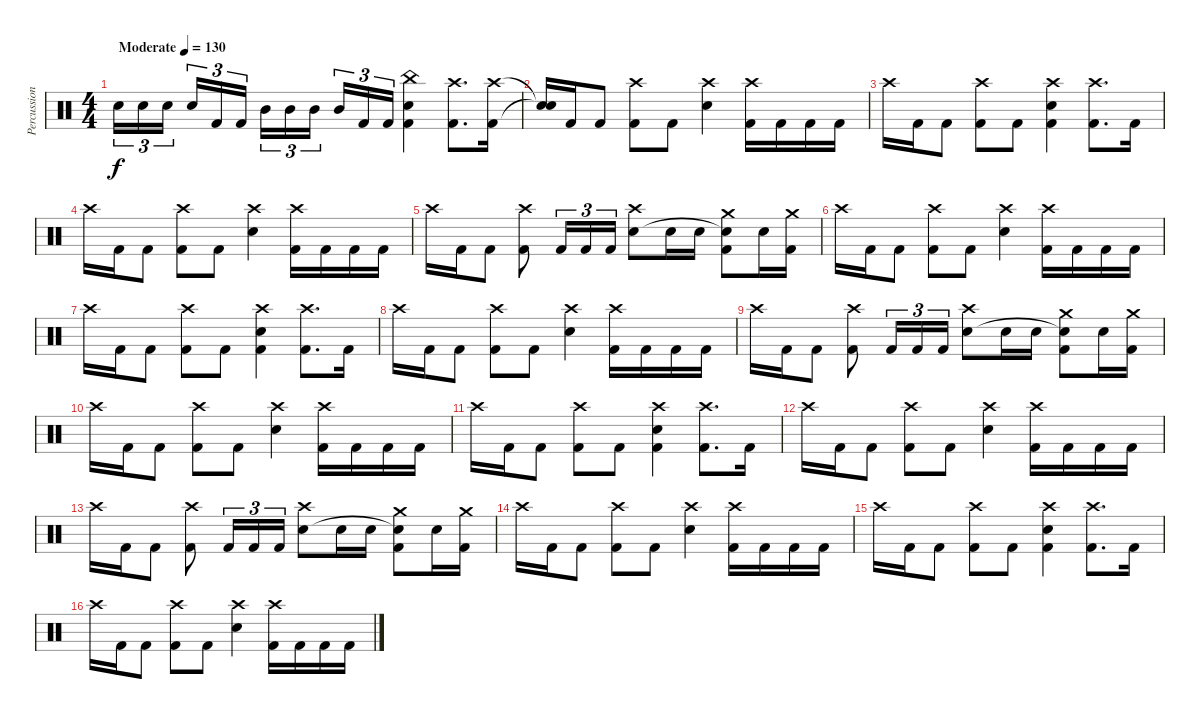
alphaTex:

\track ("Percussion" "Percussion") {instrument percussion}
\staff {score}
\articulation defaults
\ts (4 4)
\tempo (130 "Moderate")
\clef neutral
\ks c "Electric Snare (hit)".16{tu (3 2) dy f} "Electric Snare (hit)".16{tu (3 2)} "Electric Snare (hit)".16{tu (3 2) beam splitsecondary} "Electric Snare (hit)".16{tu (3 2)} "Kick (hit) 2".16{tu (3 2)} "Kick (hit) 2".16{tu (3 2)} "Mid Tom (hit)".16{tu (3 2)} "Mid Tom (hit)".16{tu (3 2)} "Mid Tom (hit)".16{tu (3 2) beam splitsecondary} "Mid Tom (hit)".16{tu (3 2)} "Kick (hit) 2".16{tu (3 2)} "Kick (hit) 2".16{tu (3 2)}
("China (hit)" "Electric Snare (hit)" "Kick (hit) 2").4 ("Crash high (hit)" "Kick (hit) 2").8{d} ("Crash high (hit)" "Kick (hit) 2").16 |
("Snare (hit)"{t} "Snare (hit)"{t}).16 "Kick (hit) 2".16 "Kick (hit) 2".8 ("Crash high (hit)" "Kick (hit) 2").8 "Kick (hit) 2".8 ("Crash high (hit)" "Electric Snare (hit)").4 ("Crash high (hit)" "Kick (hit) 2").16 "Kick (hit) 2".16 "Kick (hit) 2".16 "Kick (hit) 2".16 |
"Crash high (hit)".16 "Kick (hit) 2".16 "Kick (hit) 2".8 ("Crash high (hit)" "Kick (hit) 2").8 "Kick (hit) 2".8 ("Crash high (hit)" "Electric Snare (hit)" "Kick (hit) 2").4 ("Crash high (hit)" "Kick (hit) 2").8{d} "Kick (hit) 2".16 |
"Crash high (hit)".16 "Kick (hit) 2".16 "Kick (hit) 2".8 ("Crash high (hit)" "Kick (hit) 2").8 "Kick (hit) 2".8 ("Crash high (hit)" "Electric Snare (hit)").4 ("Crash high (hit)" "Kick (hit) 2").16 "Kick (hit) 2".16 "Kick (hit) 2".16 "Kick (hit) 2".16 |
"Crash high (hit)".16 "Kick (hit) 2".16 "Kick (hit) 2".8 ("Crash high (hit)" "Kick (hit) 2").8 "Kick (hit) 2".16{tu (3 2)} "Kick (hit) 2".16{tu (3 2)} "Kick (hit) 2".16{tu (3 2)} ("Crash high (hit)" "Electric Snare (hit)").8 "Electric Snare (hit)".16 "Electric Snare (hit)".16 ("Crash medium (hit)" "Snare (hit)"{t} "Kick (hit) 2").8 "Electric Snare (hit)".16 ("Crash medium (hit)" "Kick (hit) 2").16 |
"Crash high (hit)".16 "Kick (hit) 2".16 "Kick (hit) 2".8 ("Crash high (hit)" "Kick (hit) 2").8 "Kick (hit) 2".8 ("Crash high (hit)" "Electric Snare (hit)").4 ("Crash high (hit)" "Kick (hit) 2").16 "Kick (hit) 2".16 "Kick (hit) 2".16 "Kick (hit) 2".16 |
"Crash high (hit)".16 "Kick (hit) 2".16 "Kick (hit) 2".8 ("Crash high (hit)" "Kick (hit) 2").8 "Kick (hit) 2".8 ("Crash high (hit)" "Electric Snare (hit)" "Kick (hit) 2").4 ("Crash high (hit)" "Kick (hit) 2").8{d} "Kick (hit) 2".16 |
"Crash high (hit)".16 "Kick (hit) 2".16 "Kick (hit) 2".8 ("Crash high (hit)" "Kick (hit) 2").8 "Kick (hit) 2".8 ("Crash high (hit)" "Electric Snare (hit)").4 ("Crash high (hit)" "Kick (hit) 2").16 "Kick (hit) 2".16 "Kick (hit) 2".16 "Kick (hit) 2".16 |
"Crash high (hit)".16 "Kick (hit) 2".16 "Kick (hit) 2".8 ("Crash high (hit)" "Kick (hit) 2").8 "Kick (hit) 2".16{tu (3 2)} "Kick (hit) 2".16{tu (3 2)} "Kick (hit) 2".16{tu (3 2)} ("Crash high (hit)" "Electric Snare (hit)").8 "Electric Snare (hit)".16 "Electric Snare (hit)".16 ("Crash medium (hit)" "Snare (hit)"{t} "Kick (hit) 2").8 "Electric Snare (hit)".16 ("Crash medium (hit)" "Kick (hit) 2").16 |
"Crash high (hit)".16 "Kick (hit) 2".16 "Kick (hit) 2".8 ("Crash high (hit)" "Kick (hit) 2").8 "Kick (hit) 2".8 ("Crash high (hit)" "Electric Snare (hit)").4 ("Crash high (hit)" "Kick (hit) 2").16 "Kick (hit) 2".16 "Kick (hit) 2".16 "Kick (hit) 2".16 |
"Crash high (hit)".16 "Kick (hit) 2".16 "Kick (hit) 2".8 ("Crash high (hit)" "Kick (hit) 2").8 "Kick (hit) 2".8 ("Crash high (hit)" "Electric Snare (hit)" "Kick (hit) 2").4 ("Crash high (hit)" "Kick (hit) 2").8{d} "Kick (hit) 2".16 |
"Crash high (hit)".16 "Kick (hit) 2".16 "Kick (hit) 2".8 ("Crash high (hit)" "Kick (hit) 2").8 "Kick (hit) 2".8 ("Crash high (hit)" "Electric Snare (hit)").4 ("Crash high (hit)" "Kick (hit) 2").16 "Kick (hit) 2".16 "Kick (hit) 2".16 "Kick (hit) 2".16 |
"Crash high (hit)".16 "Kick (hit) 2".16 "Kick (hit) 2".8 ("Crash high (hit)" "Kick (hit) 2").8 "Kick (hit) 2".16{tu (3 2)} "Kick (hit) 2".16{tu (3 2)} "Kick (hit) 2".16{tu (3 2)} ("Crash high (hit)" "Electric Snare (hit)").8 "Electric Snare (hit)".16 "Electric Snare (hit)".16 ("Crash medium (hit)" "Snare (hit)"{t} "Kick (hit) 2").8 "Electric Snare (hit)".16 ("Crash medium (hit)" "Kick (hit) 2").16 |
"Crash high (hit)".16 "Kick (hit) 2".16 "Kick (hit) 2".8 ("Crash high (hit)" "Kick (hit) 2").8 "Kick (hit) 2".8 ("Crash high (hit)" "Electric Snare (hit)").4 ("Crash high (hit)" "Kick (hit) 2").16 "Kick (hit) 2".16 "Kick (hit) 2".16 "Kick (hit) 2".16 |
"Crash high (hit)".16 "Kick (hit) 2".16 "Kick (hit) 2".8 ("Crash high (hit)" "Kick (hit) 2").8 "Kick (hit) 2".8 ("Crash high (hit)" "Electric Snare (hit)" "Kick (hit) 2").4 ("Crash high (hit)" "Kick (hit) 2").8{d} "Kick (hit) 2".16 |
"Crash high (hit)".16 "Kick (hit) 2".16 "Kick (hit) 2".8 ("Crash high (hit)" "Kick (hit) 2").8 "Kick (hit) 2".8 ("Crash high (hit)" "Electric Snare (hit)").4 ("Crash high (hit)" "Kick (hit) 2").16 "Kick (hit) 2".16 "Kick (hit) 2".16 "Kick (hit) 2".16
